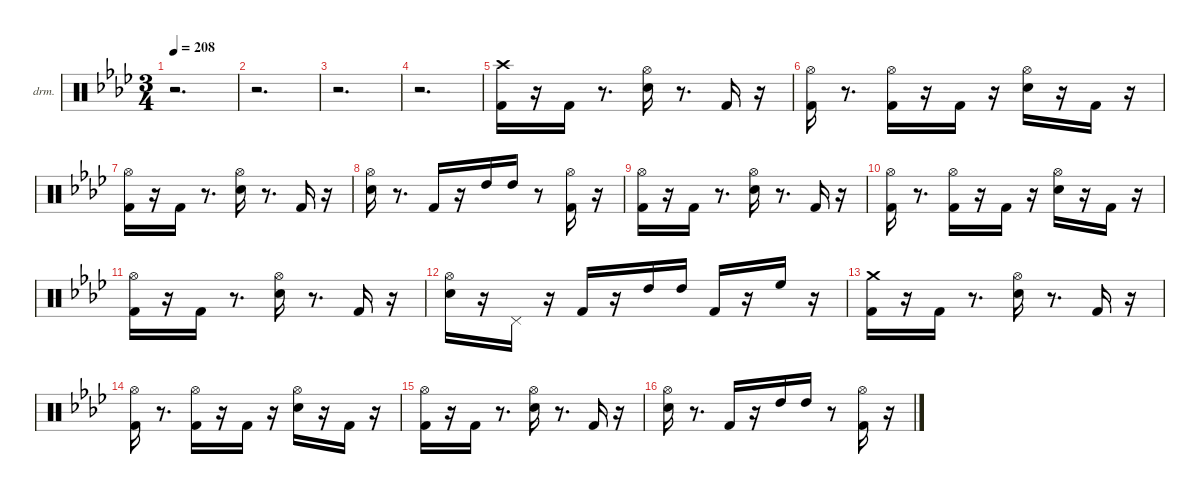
\hideDynamics
\bracketExtendMode nobrackets
\firstSystemTrackNameOrientation horizontal
\otherSystemsTrackNameOrientation horizontal
\track ("EZdrummer 3" "drm.") {instrument percussion}
\staff {score}
\articulation defaults
\ts (3 4)
\tempo 208
\clef neutral
\ks fminor
r.2{d dy mf beam Down} |
r.2{d beam Down} |
r.2{d beam Down} |
r.2{d beam Down} |
("Kick (hit) 2"{acc forcenatural} "Crash high (hit)"{acc b}).16{beam Down} r.16{beam Down} "Kick (hit) 2"{acc forcenatural}.16{dy fff beam Up} r.8{d beam Up} ("Snare (hit) 2"{acc forcenatural} "Hi-Hat (open)"{acc b}).16{dy ff beam Down} r.8{d beam Down} "Kick (hit) 2"{acc forcenatural}.16{dy mf beam Up} r.16{beam Up} |
("Kick (hit) 2"{acc forcenatural} "Hi-Hat (open)"{acc b}).16{dy fff beam Down} r.8{d beam Down} ("Kick (hit) 2"{acc forcenatural} "Hi-Hat (open)"{acc b}).16{dy mf beam Down} r.16{beam Down} "Kick (hit) 2"{acc forcenatural}.16{dy ff beam Up} r.16{beam Up} ("Snare (hit) 2"{acc forcenatural} "Hi-Hat (open)"{acc b}).16{beam Down} r.16{beam Down} "Kick (hit) 2"{acc forcenatural}.16{dy mp beam Up} r.16{beam Up} |
("Kick (hit) 2"{acc forcenatural} "Hi-Hat (open)"{acc b}).16{dy fff beam Down} r.16{beam Down} "Kick (hit) 2"{acc forcenatural}.16{dy mf beam Up} r.8{d beam Up} ("Snare (hit) 2"{acc forcenatural} "Hi-Hat (open)"{acc b}).16{dy ff beam Down} r.8{d beam Down} "Kick (hit) 2"{acc forcenatural}.16{dy mf beam Up} r.16{beam Up} |
("Snare (hit) 2"{acc forcenatural} "Hi-Hat (open)"{acc b}).16{dy fff beam Down} r.8{d beam Down} "Kick (hit) 2"{acc forcenatural}.16{dy ff beam Up} r.16{beam Up} "High Tom (hit)"{acc forcenatural}.16{beam Down} "High Tom (hit)"{acc forcenatural}.16{dy p beam Down} r.8{beam Down} ("Kick (hit) 2"{acc forcenatural} "Hi-Hat (open)"{acc b}).16{dy mf beam Down} r.16{beam Down} |
("Kick (hit) 2"{acc forcenatural} "Hi-Hat (open)"{acc b}).16{beam Down} r.16{beam Down} "Kick (hit) 2"{acc forcenatural}.16{dy fff beam Up} r.8{d beam Up} ("Snare (hit) 2"{acc forcenatural} "Hi-Hat (open)"{acc b}).16{dy ff beam Down} r.8{d beam Down} "Kick (hit) 2"{acc forcenatural}.16{dy mf beam Up} r.16{beam Up} |
("Kick (hit) 2"{acc forcenatural} "Hi-Hat (open)"{acc b}).16{dy fff beam Down} r.8{d beam Down} ("Kick (hit) 2"{acc forcenatural} "Hi-Hat (open)"{acc b}).16{dy mf beam Down} r.16{beam Down} "Kick (hit) 2"{acc forcenatural}.16{dy ff beam Up} r.16{beam Up} ("Snare (hit) 2"{acc forcenatural} "Hi-Hat (open)"{acc b}).16{beam Down} r.16{beam Down} "Kick (hit) 2"{acc forcenatural}.16{dy mp beam Up} r.16{beam Up} |
("Kick (hit) 2"{acc forcenatural} "Hi-Hat (open)"{acc b}).16{dy fff beam Down} r.16{beam Down} "Kick (hit) 2"{acc forcenatural}.16{dy mf beam Up} r.8{d beam Up} ("Snare (hit) 2"{acc forcenatural} "Hi-Hat (open)"{acc b}).16{dy ff beam Down} r.8{d beam Down} "Kick (hit) 2"{acc forcenatural}.16{dy mf beam Up} r.16{beam Up} |
("Snare (hit) 2"{acc forcenatural} "Hi-Hat (open)"{acc b}).16{dy fff beam Down} r.16{beam Down} "Pedal Hi-Hat (hit)"{acc b}.16{dy ff beam Up} r.16{beam Up} "Kick (hit) 2"{acc forcenatural}.16{beam Up} r.16{beam Up} "High Tom (hit)"{acc forcenatural}.16{dy fff beam Down} "High Tom (hit)"{acc forcenatural}.16{dy f beam Down} "Kick (hit) 2"{acc forcenatural}.16{dy ff beam Up} r.16{beam Up} "High Floor Tom (hit)"{acc forcenatural}.16{dy fff beam Down} r.16{beam Down} |
("Kick (hit) 2"{acc forcenatural} "Crash medium (hit)"{acc forcenatural}).16{dy mf beam Down} r.16{beam Down} "Kick (hit) 2"{acc forcenatural}.16{dy fff beam Up} r.8{d beam Up} ("Snare (hit) 2"{acc forcenatural} "Hi-Hat (open)"{acc b}).16{dy ff beam Down} r.8{d beam Down} "Kick (hit) 2"{acc forcenatural}.16{dy mf beam Up} r.16{beam Up} |
("Kick (hit) 2"{acc forcenatural} "Hi-Hat (open)"{acc b}).16{dy fff beam Down} r.8{d beam Down} ("Kick (hit) 2"{acc forcenatural} "Hi-Hat (open)"{acc b}).16{dy mf beam Down} r.16{beam Down} "Kick (hit) 2"{acc forcenatural}.16{dy ff beam Up} r.16{beam Up} ("Snare (hit) 2"{acc forcenatural} "Hi-Hat (open)"{acc b}).16{beam Down} r.16{beam Down} "Kick (hit) 2"{acc forcenatural}.16{dy mp beam Up} r.16{beam Up} |
("Kick (hit) 2"{acc forcenatural} "Hi-Hat (open)"{acc b}).16{dy fff beam Down} r.16{beam Down} "Kick (hit) 2"{acc forcenatural}.16{dy mf beam Up} r.8{d beam Up} ("Snare (hit) 2"{acc forcenatural} "Hi-Hat (open)"{acc b}).16{dy ff beam Down} r.8{d beam Down} "Kick (hit) 2"{acc forcenatural}.16{dy mf beam Up} r.16{beam Up} |
("Snare (hit) 2"{acc forcenatural} "Hi-Hat (open)"{acc b}).16{dy fff beam Down} r.8{d beam Down} "Kick (hit) 2"{acc forcenatural}.16{dy ff beam Up} r.16{beam Up} "High Tom (hit)"{acc forcenatural}.16{beam Down} "High Tom (hit)"{acc forcenatural}.16{dy p beam Down} r.8{beam Down} ("Kick (hit) 2"{acc forcenatural} "Hi-Hat (open)"{acc b}).16{dy mf beam Down} r.16{beam Down}
